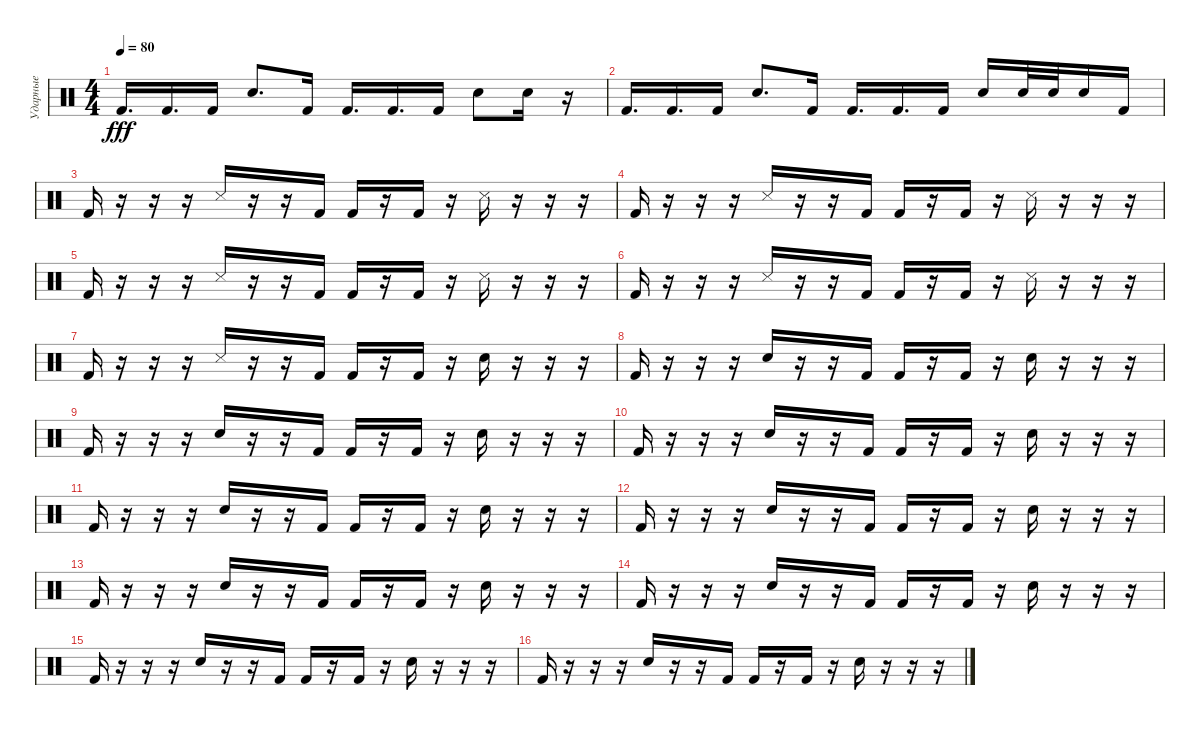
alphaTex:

\track ("Ударные" "Ударные") {instrument percussion}
\staff {score}
\articulation defaults
\ts (4 4)
\tempo 80
\clef neutral
\ks c "Kick (hit) 2".16{d dy fff} "Kick (hit) 2".16{d} "Kick (hit) 2".16 "Electric Snare (hit)".8{d} "Kick (hit) 2".16 "Kick (hit) 2".16{d} "Kick (hit) 2".16{d} "Kick (hit) 2".16 "Electric Snare (hit)".8 "Electric Snare (hit)".16
r.16 |
"Kick (hit) 2".16{d} "Kick (hit) 2".16{d} "Kick (hit) 2".16 "Electric Snare (hit)".8{d} "Kick (hit) 2".16 "Kick (hit) 2".16{d} "Kick (hit) 2".16{d} "Kick (hit) 2".16 "Electric Snare (hit)".16 "Electric Snare (hit)".32 "Electric Snare (hit)".32 "Electric Snare (hit)".16 "Kick (hit) 2".16 |
"Kick (hit) 2".16 r.16 r.16 r.16 "Snare (side stick) 3".16 r.16 r.16 "Kick (hit) 2".16 "Kick (hit) 2".16 r.16 "Kick (hit) 2".16 r.16 "Snare (side stick) 3".16 r.16 r.16 r.16 |
"Kick (hit) 2".16 r.16 r.16 r.16 "Snare (side stick) 3".16 r.16 r.16 "Kick (hit) 2".16 "Kick (hit) 2".16 r.16 "Kick (hit) 2".16 r.16 "Snare (side stick) 3".16 r.16 r.16 r.16 |
"Kick (hit) 2".16 r.16 r.16 r.16 "Snare (side stick) 3".16 r.16 r.16 "Kick (hit) 2".16 "Kick (hit) 2".16 r.16 "Kick (hit) 2".16 r.16 "Snare (side stick) 3".16 r.16 r.16 r.16 |
"Kick (hit) 2".16 r.16 r.16 r.16 "Snare (side stick) 3".16 r.16 r.16 "Kick (hit) 2".16 "Kick (hit) 2".16 r.16 "Kick (hit) 2".16 r.16 "Snare (side stick) 3".16 r.16 r.16 r.16 |
"Kick (hit) 2".16 r.16 r.16 r.16 "Snare (side stick) 3".16 r.16 r.16 "Kick (hit) 2".16 "Kick (hit) 2".16 r.16 "Kick (hit) 2".16 r.16 "Electric Snare (hit)".16 r.16 r.16 r.16 |
"Kick (hit) 2".16 r.16 r.16 r.16 "Electric Snare (hit)".16 r.16 r.16 "Kick (hit) 2".16 "Kick (hit) 2".16 r.16 "Kick (hit) 2".16 r.16 "Electric Snare (hit)".16 r.16 r.16 r.16 |
"Kick (hit) 2".16 r.16 r.16 r.16 "Electric Snare (hit)".16 r.16 r.16 "Kick (hit) 2".16 "Kick (hit) 2".16 r.16 "Kick (hit) 2".16 r.16 "Electric Snare (hit)".16 r.16 r.16 r.16 |
"Kick (hit) 2".16 r.16 r.16 r.16 "Electric Snare (hit)".16 r.16 r.16 "Kick (hit) 2".16 "Kick (hit) 2".16 r.16 "Kick (hit) 2".16 r.16 "Electric Snare (hit)".16 r.16 r.16 r.16 |
"Kick (hit) 2".16 r.16 r.16 r.16 "Electric Snare (hit)".16 r.16 r.16 "Kick (hit) 2".16 "Kick (hit) 2".16 r.16 "Kick (hit) 2".16 r.16 "Electric Snare (hit)".16 r.16 r.16 r.16 |
"Kick (hit) 2".16 r.16 r.16 r.16 "Electric Snare (hit)".16 r.16 r.16 "Kick (hit) 2".16 "Kick (hit) 2".16 r.16 "Kick (hit) 2".16 r.16 "Electric Snare (hit)".16 r.16 r.16 r.16 |
"Kick (hit) 2".16 r.16 r.16 r.16 "Electric Snare (hit)".16 r.16 r.16 "Kick (hit) 2".16 "Kick (hit) 2".16 r.16 "Kick (hit) 2".16 r.16 "Electric Snare (hit)".16 r.16 r.16 r.16 |
"Kick (hit) 2".16 r.16 r.16 r.16 "Electric Snare (hit)".16 r.16 r.16 "Kick (hit) 2".16 "Kick (hit) 2".16 r.16 "Kick (hit) 2".16 r.16 "Electric Snare (hit)".16 r.16 r.16 r.16 |
"Kick (hit) 2".16 r.16 r.16 r.16 "Electric Snare (hit)".16 r.16 r.16 "Kick (hit) 2".16 "Kick (hit) 2".16 r.16 "Kick (hit) 2".16 r.16 "Electric Snare (hit)".16 r.16 r.16 r.16 |
"Kick (hit) 2".16 r.16 r.16 r.16 "Electric Snare (hit)".16 r.16 r.16 "Kick (hit) 2".16 "Kick (hit) 2".16 r.16 "Kick (hit) 2".16 r.16 "Electric Snare (hit)".16 r.16 r.16 r.16
